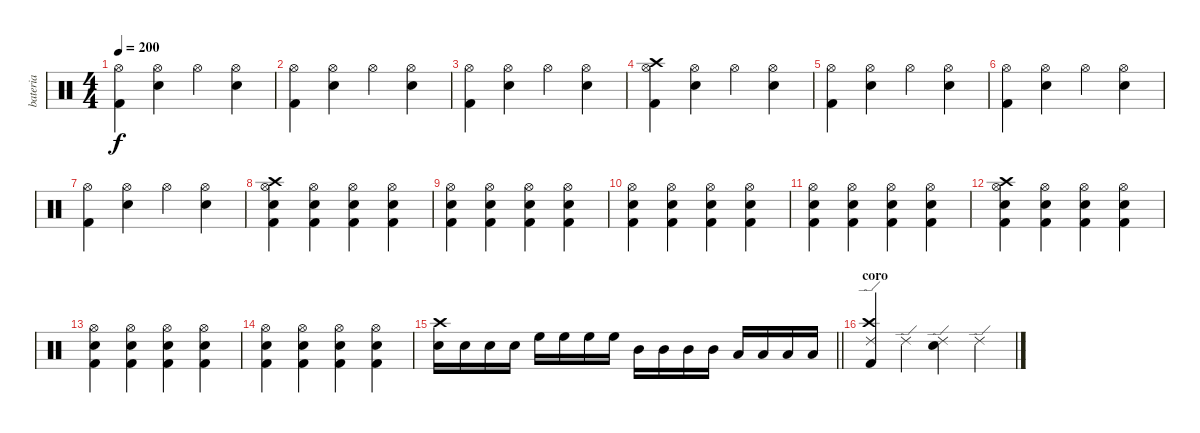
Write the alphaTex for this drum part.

\track ("bateria" "bateria") {instrument percussion}
\staff {score}
\articulation defaults
\ts (4 4)
\tempo 200
\clef neutral
\ks c
("Hi-Hat (open)" "Kick (hit) 2").4{dy f} ("Hi-Hat (open)" "Electric Snare (hit)").4 "Hi-Hat (open)".4 ("Hi-Hat (open)" "Electric Snare (hit)").4 |
("Hi-Hat (open)" "Kick (hit) 2").4 ("Hi-Hat (open)" "Electric Snare (hit)").4 "Hi-Hat (open)".4 ("Hi-Hat (open)" "Electric Snare (hit)").4 |
("Hi-Hat (open)" "Kick (hit) 2").4 ("Hi-Hat (open)" "Electric Snare (hit)").4 "Hi-Hat (open)".4 ("Hi-Hat (open)" "Electric Snare (hit)").4 |
("Hi-Hat (open)" "Kick (hit) 2" "Crash high (hit)").4 ("Hi-Hat (open)" "Electric Snare (hit)").4 "Hi-Hat (open)".4 ("Hi-Hat (open)" "Electric Snare (hit)").4 |
("Hi-Hat (open)" "Kick (hit) 2").4 ("Hi-Hat (open)" "Electric Snare (hit)").4 "Hi-Hat (open)".4 ("Hi-Hat (open)" "Electric Snare (hit)").4 |
("Hi-Hat (open)" "Kick (hit) 2").4 ("Hi-Hat (open)" "Electric Snare (hit)").4 "Hi-Hat (open)".4 ("Hi-Hat (open)" "Electric Snare (hit)").4 |
("Hi-Hat (open)" "Kick (hit) 2").4 ("Hi-Hat (open)" "Electric Snare (hit)").4 "Hi-Hat (open)".4 ("Hi-Hat (open)" "Electric Snare (hit)").4 |
("Electric Snare (hit)" "Kick (hit) 2" "Hi-Hat (open)" "Crash high (hit)").4 ("Electric Snare (hit)" "Kick (hit) 2" "Hi-Hat (open)").4 ("Electric Snare (hit)" "Kick (hit) 2" "Hi-Hat (open)").4 ("Electric Snare (hit)" "Kick (hit) 2" "Hi-Hat (open)").4 |
("Electric Snare (hit)" "Kick (hit) 2" "Hi-Hat (open)").4 ("Electric Snare (hit)" "Kick (hit) 2" "Hi-Hat (open)").4 ("Electric Snare (hit)" "Kick (hit) 2" "Hi-Hat (open)").4 ("Electric Snare (hit)" "Kick (hit) 2" "Hi-Hat (open)").4 |
("Electric Snare (hit)" "Kick (hit) 2" "Hi-Hat (open)").4 ("Electric Snare (hit)" "Kick (hit) 2" "Hi-Hat (open)").4 ("Electric Snare (hit)" "Kick (hit) 2" "Hi-Hat (open)").4 ("Electric Snare (hit)" "Kick (hit) 2" "Hi-Hat (open)").4 |
("Electric Snare (hit)" "Kick (hit) 2" "Hi-Hat (open)").4 ("Electric Snare (hit)" "Kick (hit) 2" "Hi-Hat (open)").4 ("Electric Snare (hit)" "Kick (hit) 2" "Hi-Hat (open)").4 ("Electric Snare (hit)" "Kick (hit) 2" "Hi-Hat (open)").4 |
("Electric Snare (hit)" "Kick (hit) 2" "Hi-Hat (open)" "Crash high (hit)").4 ("Electric Snare (hit)" "Kick (hit) 2" "Hi-Hat (open)").4 ("Electric Snare (hit)" "Kick (hit) 2" "Hi-Hat (open)").4 ("Electric Snare (hit)" "Kick (hit) 2" "Hi-Hat (open)").4 |
("Electric Snare (hit)" "Kick (hit) 2" "Hi-Hat (open)").4 ("Electric Snare (hit)" "Kick (hit) 2" "Hi-Hat (open)").4 ("Electric Snare (hit)" "Kick (hit) 2" "Hi-Hat (open)").4 ("Electric Snare (hit)" "Kick (hit) 2" "Hi-Hat (open)").4 |
("Electric Snare (hit)" "Kick (hit) 2" "Hi-Hat (open)").4 ("Electric Snare (hit)" "Kick (hit) 2" "Hi-Hat (open)").4 ("Electric Snare (hit)" "Kick (hit) 2" "Hi-Hat (open)").4 ("Electric Snare (hit)" "Kick (hit) 2" "Hi-Hat (open)").4 |
\barLineRight lightlight
("Electric Snare (hit)" "Crash high (hit)").16 "Electric Snare (hit)".16 "Electric Snare (hit)".16 "Electric Snare (hit)".16 "High Floor Tom (hit)".16 "High Floor Tom (hit)".16 "High Floor Tom (hit)".16 "High Floor Tom (hit)".16 "Mid Tom (hit)".16 "Mid Tom (hit)".16 "Mid Tom (hit)".16 "Mid Tom (hit)".16 "Low Tom (hit)".16 "Low Tom (hit)".16 "Low Tom (hit)".16 "Low Tom (hit)".16 |
\section ("" "coro")
("Ride (edge) 2" "Kick (hit) 2" "Crash high (hit)").4 "Ride (edge) 2".4 ("Ride (edge) 2" "Electric Snare (hit)").4 "Ride (edge) 2".4
